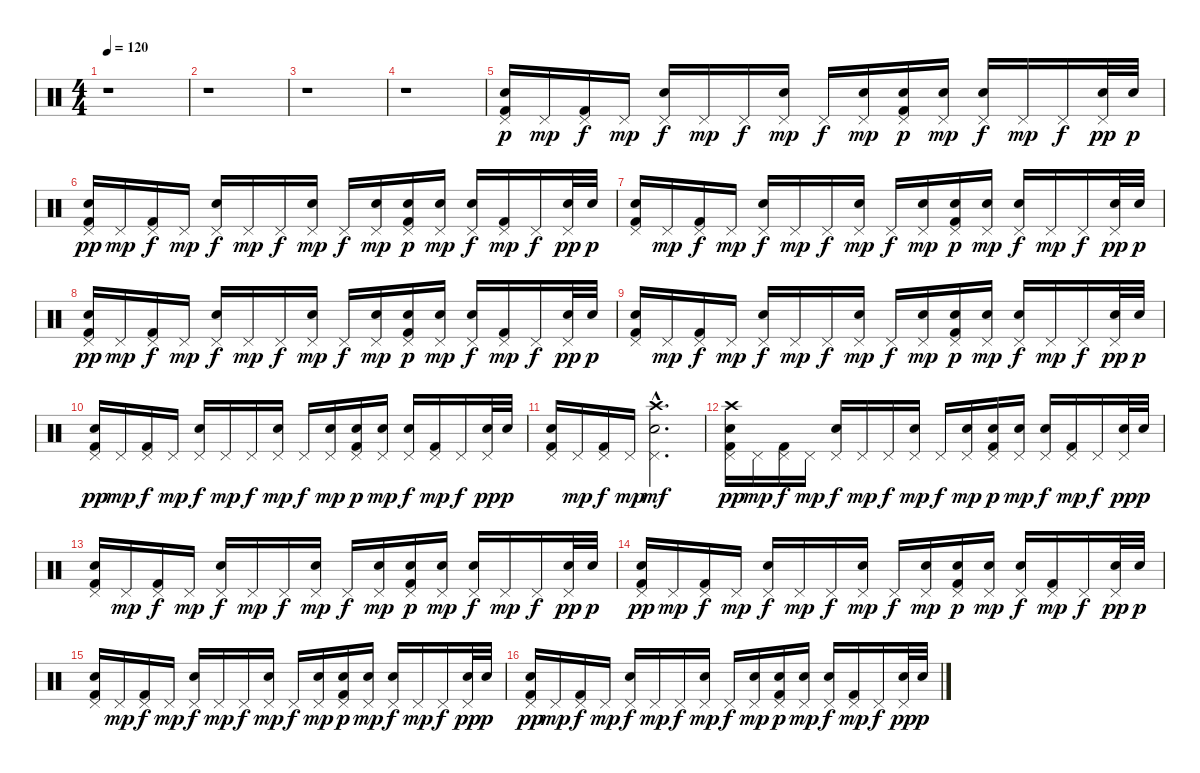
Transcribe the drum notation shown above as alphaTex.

\track "" {instrument percussion}
\staff {score}
\articulation defaults
\ts (4 4)
\tempo 120
\clef neutral
\ks c
r.1{dy p} |
r.1 |
r.1 |
r.1 |
("Pedal Hi-Hat (hit)" "Electric Snare (hit)" "Kick (hit) 2").16 "Pedal Hi-Hat (hit)".16{dy mp} ("Pedal Hi-Hat (hit)" "Kick (hit) 2").16{dy f} "Pedal Hi-Hat (hit)".16{dy mp} ("Pedal Hi-Hat (hit)" "Electric Snare (hit)").16{dy f} "Pedal Hi-Hat (hit)".16{dy mp} "Pedal Hi-Hat (hit)".16{dy f} ("Pedal Hi-Hat (hit)" "Electric Snare (hit)").16{dy mp} "Pedal Hi-Hat (hit)".16{dy f} ("Pedal Hi-Hat (hit)" "Electric Snare (hit)").16{dy mp} ("Pedal Hi-Hat (hit)" "Electric Snare (hit)" "Kick (hit) 2").16{dy p} ("Pedal Hi-Hat (hit)" "Electric Snare (hit)").16{dy mp} ("Pedal Hi-Hat (hit)" "Electric Snare (hit)").16{dy f} "Pedal Hi-Hat (hit)".16{dy mp} "Pedal Hi-Hat (hit)".16{dy f} ("Pedal Hi-Hat (hit)" "Electric Snare (hit)").32{dy pp} "Electric Snare (hit)".32{dy p} |
("Pedal Hi-Hat (hit)" "Electric Snare (hit)" "Kick (hit) 2").16{dy pp} "Pedal Hi-Hat (hit)".16{dy mp} ("Pedal Hi-Hat (hit)" "Kick (hit) 2").16{dy f} "Pedal Hi-Hat (hit)".16{dy mp} ("Pedal Hi-Hat (hit)" "Electric Snare (hit)").16{dy f} "Pedal Hi-Hat (hit)".16{dy mp} "Pedal Hi-Hat (hit)".16{dy f} ("Pedal Hi-Hat (hit)" "Electric Snare (hit)").16{dy mp} "Pedal Hi-Hat (hit)".16{dy f} ("Pedal Hi-Hat (hit)" "Electric Snare (hit)").16{dy mp} ("Pedal Hi-Hat (hit)" "Electric Snare (hit)" "Kick (hit) 2").16{dy p} ("Pedal Hi-Hat (hit)" "Electric Snare (hit)").16{dy mp} ("Pedal Hi-Hat (hit)" "Electric Snare (hit)").16{dy f} ("Pedal Hi-Hat (hit)" "Kick (hit) 2").16{dy mp} "Pedal Hi-Hat (hit)".16{dy f} ("Pedal Hi-Hat (hit)" "Electric Snare (hit)").32{dy pp} "Electric Snare (hit)".32{dy p} |
("Pedal Hi-Hat (hit)" "Electric Snare (hit)" "Kick (hit) 2").16 "Pedal Hi-Hat (hit)".16{dy mp} ("Pedal Hi-Hat (hit)" "Kick (hit) 2").16{dy f} "Pedal Hi-Hat (hit)".16{dy mp} ("Pedal Hi-Hat (hit)" "Electric Snare (hit)").16{dy f} "Pedal Hi-Hat (hit)".16{dy mp} "Pedal Hi-Hat (hit)".16{dy f} ("Pedal Hi-Hat (hit)" "Electric Snare (hit)").16{dy mp} "Pedal Hi-Hat (hit)".16{dy f} ("Pedal Hi-Hat (hit)" "Electric Snare (hit)").16{dy mp} ("Pedal Hi-Hat (hit)" "Electric Snare (hit)" "Kick (hit) 2").16{dy p} ("Pedal Hi-Hat (hit)" "Electric Snare (hit)").16{dy mp} ("Pedal Hi-Hat (hit)" "Electric Snare (hit)").16{dy f} "Pedal Hi-Hat (hit)".16{dy mp} "Pedal Hi-Hat (hit)".16{dy f} ("Pedal Hi-Hat (hit)" "Electric Snare (hit)").32{dy pp} "Electric Snare (hit)".32{dy p} |
("Pedal Hi-Hat (hit)" "Electric Snare (hit)" "Kick (hit) 2").16{dy pp} "Pedal Hi-Hat (hit)".16{dy mp} ("Pedal Hi-Hat (hit)" "Kick (hit) 2").16{dy f} "Pedal Hi-Hat (hit)".16{dy mp} ("Pedal Hi-Hat (hit)" "Electric Snare (hit)").16{dy f} "Pedal Hi-Hat (hit)".16{dy mp} "Pedal Hi-Hat (hit)".16{dy f} ("Pedal Hi-Hat (hit)" "Electric Snare (hit)").16{dy mp} "Pedal Hi-Hat (hit)".16{dy f} ("Pedal Hi-Hat (hit)" "Electric Snare (hit)").16{dy mp} ("Pedal Hi-Hat (hit)" "Electric Snare (hit)" "Kick (hit) 2").16{dy p} ("Pedal Hi-Hat (hit)" "Electric Snare (hit)").16{dy mp} ("Pedal Hi-Hat (hit)" "Electric Snare (hit)").16{dy f} ("Pedal Hi-Hat (hit)" "Kick (hit) 2").16{dy mp} "Pedal Hi-Hat (hit)".16{dy f} ("Pedal Hi-Hat (hit)" "Electric Snare (hit)").32{dy pp} "Electric Snare (hit)".32{dy p} |
("Pedal Hi-Hat (hit)" "Electric Snare (hit)" "Kick (hit) 2").16 "Pedal Hi-Hat (hit)".16{dy mp} ("Pedal Hi-Hat (hit)" "Kick (hit) 2").16{dy f} "Pedal Hi-Hat (hit)".16{dy mp} ("Pedal Hi-Hat (hit)" "Electric Snare (hit)").16{dy f} "Pedal Hi-Hat (hit)".16{dy mp} "Pedal Hi-Hat (hit)".16{dy f} ("Pedal Hi-Hat (hit)" "Electric Snare (hit)").16{dy mp} "Pedal Hi-Hat (hit)".16{dy f} ("Pedal Hi-Hat (hit)" "Electric Snare (hit)").16{dy mp} ("Pedal Hi-Hat (hit)" "Electric Snare (hit)" "Kick (hit) 2").16{dy p} ("Pedal Hi-Hat (hit)" "Electric Snare (hit)").16{dy mp} ("Pedal Hi-Hat (hit)" "Electric Snare (hit)").16{dy f} "Pedal Hi-Hat (hit)".16{dy mp} "Pedal Hi-Hat (hit)".16{dy f} ("Pedal Hi-Hat (hit)" "Electric Snare (hit)").32{dy pp} "Electric Snare (hit)".32{dy p} |
("Pedal Hi-Hat (hit)" "Electric Snare (hit)" "Kick (hit) 2").16{dy pp} "Pedal Hi-Hat (hit)".16{dy mp} ("Pedal Hi-Hat (hit)" "Kick (hit) 2").16{dy f} "Pedal Hi-Hat (hit)".16{dy mp} ("Pedal Hi-Hat (hit)" "Electric Snare (hit)").16{dy f} "Pedal Hi-Hat (hit)".16{dy mp} "Pedal Hi-Hat (hit)".16{dy f} ("Pedal Hi-Hat (hit)" "Electric Snare (hit)").16{dy mp} "Pedal Hi-Hat (hit)".16{dy f} ("Pedal Hi-Hat (hit)" "Electric Snare (hit)").16{dy mp} ("Pedal Hi-Hat (hit)" "Electric Snare (hit)" "Kick (hit) 2").16{dy p} ("Pedal Hi-Hat (hit)" "Electric Snare (hit)").16{dy mp} ("Pedal Hi-Hat (hit)" "Electric Snare (hit)").16{dy f} ("Pedal Hi-Hat (hit)" "Kick (hit) 2").16{dy mp} "Pedal Hi-Hat (hit)".16{dy f} ("Pedal Hi-Hat (hit)" "Electric Snare (hit)").32{dy pp} "Electric Snare (hit)".32{dy p} |
("Pedal Hi-Hat (hit)" "Electric Snare (hit)" "Kick (hit) 2").16 "Pedal Hi-Hat (hit)".16{dy mp} ("Pedal Hi-Hat (hit)" "Kick (hit) 2").16{dy f} "Pedal Hi-Hat (hit)".16{dy mp} ("Pedal Hi-Hat (hit)"{hac} "Crash high (hit)"{hac} "Electric Snare (hit)"{hac}).2{d dy mf} |
("Pedal Hi-Hat (hit)" "Crash high (hit)" "Electric Snare (hit)" "Kick (hit) 2").16{dy pp} "Pedal Hi-Hat (hit)".16{dy mp} ("Pedal Hi-Hat (hit)" "Kick (hit) 2").16{dy f} "Pedal Hi-Hat (hit)".16{dy mp} ("Pedal Hi-Hat (hit)" "Electric Snare (hit)").16{dy f} "Pedal Hi-Hat (hit)".16{dy mp} "Pedal Hi-Hat (hit)".16{dy f} ("Pedal Hi-Hat (hit)" "Electric Snare (hit)").16{dy mp} "Pedal Hi-Hat (hit)".16{dy f} ("Pedal Hi-Hat (hit)" "Electric Snare (hit)").16{dy mp} ("Pedal Hi-Hat (hit)" "Electric Snare (hit)" "Kick (hit) 2").16{dy p} ("Pedal Hi-Hat (hit)" "Electric Snare (hit)").16{dy mp} ("Pedal Hi-Hat (hit)" "Electric Snare (hit)").16{dy f} ("Pedal Hi-Hat (hit)" "Kick (hit) 2").16{dy mp} "Pedal Hi-Hat (hit)".16{dy f} ("Pedal Hi-Hat (hit)" "Electric Snare (hit)").32{dy pp} "Electric Snare (hit)".32{dy p} |
("Pedal Hi-Hat (hit)" "Electric Snare (hit)" "Kick (hit) 2").16 "Pedal Hi-Hat (hit)".16{dy mp} ("Pedal Hi-Hat (hit)" "Kick (hit) 2").16{dy f} "Pedal Hi-Hat (hit)".16{dy mp} ("Pedal Hi-Hat (hit)" "Electric Snare (hit)").16{dy f} "Pedal Hi-Hat (hit)".16{dy mp} "Pedal Hi-Hat (hit)".16{dy f} ("Pedal Hi-Hat (hit)" "Electric Snare (hit)").16{dy mp} "Pedal Hi-Hat (hit)".16{dy f} ("Pedal Hi-Hat (hit)" "Electric Snare (hit)").16{dy mp} ("Pedal Hi-Hat (hit)" "Electric Snare (hit)" "Kick (hit) 2").16{dy p} ("Pedal Hi-Hat (hit)" "Electric Snare (hit)").16{dy mp} ("Pedal Hi-Hat (hit)" "Electric Snare (hit)").16{dy f} "Pedal Hi-Hat (hit)".16{dy mp} "Pedal Hi-Hat (hit)".16{dy f} ("Pedal Hi-Hat (hit)" "Electric Snare (hit)").32{dy pp} "Electric Snare (hit)".32{dy p} |
("Pedal Hi-Hat (hit)" "Electric Snare (hit)" "Kick (hit) 2").16{dy pp} "Pedal Hi-Hat (hit)".16{dy mp} ("Pedal Hi-Hat (hit)" "Kick (hit) 2").16{dy f} "Pedal Hi-Hat (hit)".16{dy mp} ("Pedal Hi-Hat (hit)" "Electric Snare (hit)").16{dy f} "Pedal Hi-Hat (hit)".16{dy mp} "Pedal Hi-Hat (hit)".16{dy f} ("Pedal Hi-Hat (hit)" "Electric Snare (hit)").16{dy mp} "Pedal Hi-Hat (hit)".16{dy f} ("Pedal Hi-Hat (hit)" "Electric Snare (hit)").16{dy mp} ("Pedal Hi-Hat (hit)" "Electric Snare (hit)" "Kick (hit) 2").16{dy p} ("Pedal Hi-Hat (hit)" "Electric Snare (hit)").16{dy mp} ("Pedal Hi-Hat (hit)" "Electric Snare (hit)").16{dy f} ("Pedal Hi-Hat (hit)" "Kick (hit) 2").16{dy mp} "Pedal Hi-Hat (hit)".16{dy f} ("Pedal Hi-Hat (hit)" "Electric Snare (hit)").32{dy pp} "Electric Snare (hit)".32{dy p} |
("Pedal Hi-Hat (hit)" "Electric Snare (hit)" "Kick (hit) 2").16 "Pedal Hi-Hat (hit)".16{dy mp} ("Pedal Hi-Hat (hit)" "Kick (hit) 2").16{dy f} "Pedal Hi-Hat (hit)".16{dy mp} ("Pedal Hi-Hat (hit)" "Electric Snare (hit)").16{dy f} "Pedal Hi-Hat (hit)".16{dy mp} "Pedal Hi-Hat (hit)".16{dy f} ("Pedal Hi-Hat (hit)" "Electric Snare (hit)").16{dy mp} "Pedal Hi-Hat (hit)".16{dy f} ("Pedal Hi-Hat (hit)" "Electric Snare (hit)").16{dy mp} ("Pedal Hi-Hat (hit)" "Electric Snare (hit)" "Kick (hit) 2").16{dy p} ("Pedal Hi-Hat (hit)" "Electric Snare (hit)").16{dy mp} ("Pedal Hi-Hat (hit)" "Electric Snare (hit)").16{dy f} "Pedal Hi-Hat (hit)".16{dy mp} "Pedal Hi-Hat (hit)".16{dy f} ("Pedal Hi-Hat (hit)" "Electric Snare (hit)").32{dy pp} "Electric Snare (hit)".32{dy p} |
("Pedal Hi-Hat (hit)" "Electric Snare (hit)" "Kick (hit) 2").16{dy pp} "Pedal Hi-Hat (hit)".16{dy mp} ("Pedal Hi-Hat (hit)" "Kick (hit) 2").16{dy f} "Pedal Hi-Hat (hit)".16{dy mp} ("Pedal Hi-Hat (hit)" "Electric Snare (hit)").16{dy f} "Pedal Hi-Hat (hit)".16{dy mp} "Pedal Hi-Hat (hit)".16{dy f} ("Pedal Hi-Hat (hit)" "Electric Snare (hit)").16{dy mp} "Pedal Hi-Hat (hit)".16{dy f} ("Pedal Hi-Hat (hit)" "Electric Snare (hit)").16{dy mp} ("Pedal Hi-Hat (hit)" "Electric Snare (hit)" "Kick (hit) 2").16{dy p} ("Pedal Hi-Hat (hit)" "Electric Snare (hit)").16{dy mp} ("Pedal Hi-Hat (hit)" "Electric Snare (hit)").16{dy f} ("Pedal Hi-Hat (hit)" "Kick (hit) 2").16{dy mp} "Pedal Hi-Hat (hit)".16{dy f} ("Pedal Hi-Hat (hit)" "Electric Snare (hit)").32{dy pp} "Electric Snare (hit)".32{dy p}
